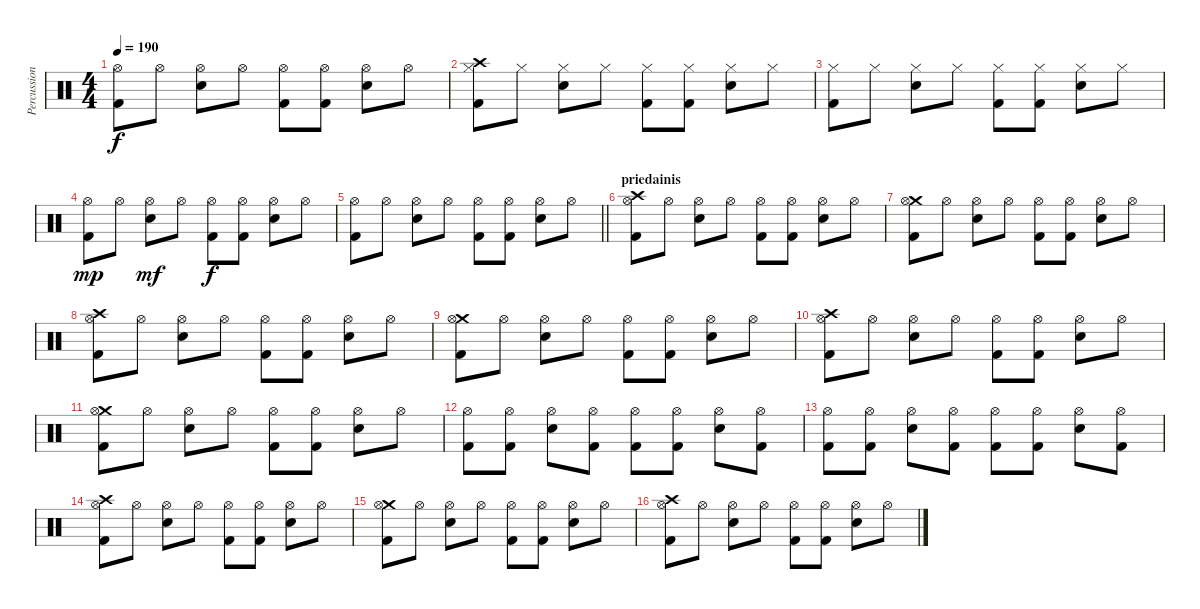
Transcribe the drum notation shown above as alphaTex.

\track ("Percussion" "Percussion") {instrument percussion}
\staff {score}
\articulation defaults
\ts (4 4)
\tempo 190
\clef neutral
\ks c
("Hi-Hat (open)" "Kick (hit) 2").8{dy f} "Hi-Hat (open)".8 ("Hi-Hat (open)" "Snare (hit) 2").8 "Hi-Hat (open)".8 ("Hi-Hat (open)" "Kick (hit) 2").8 ("Hi-Hat (open)" "Kick (hit) 2").8 ("Hi-Hat (open)" "Snare (hit) 2").8 "Hi-Hat (open)".8 |
("Crash high (hit)" "Hi-Hat (closed)" "Kick (hit) 2").8 "Hi-Hat (closed)".8 ("Hi-Hat (closed)" "Snare (hit) 2").8 "Hi-Hat (closed)".8 ("Hi-Hat (closed)" "Kick (hit) 2").8 ("Hi-Hat (closed)" "Kick (hit) 2").8 ("Hi-Hat (closed)" "Snare (hit) 2").8 "Hi-Hat (closed)".8 |
("Hi-Hat (closed)" "Kick (hit) 2").8 "Hi-Hat (closed)".8 ("Hi-Hat (closed)" "Snare (hit) 2").8 "Hi-Hat (closed)".8 ("Hi-Hat (closed)" "Kick (hit) 2").8 ("Hi-Hat (closed)" "Kick (hit) 2").8 ("Hi-Hat (closed)" "Snare (hit) 2").8 "Hi-Hat (closed)".8 |
("Hi-Hat (open)" "Kick (hit) 2").8{dy mp} "Hi-Hat (open)".8 ("Hi-Hat (open)" "Snare (hit) 2").8{dy mf} "Hi-Hat (open)".8 ("Hi-Hat (open)" "Kick (hit) 2").8{dy f} ("Hi-Hat (open)" "Kick (hit) 2").8 ("Hi-Hat (open)" "Snare (hit) 2").8 "Hi-Hat (open)".8 |
\barLineRight lightlight
("Hi-Hat (open)" "Kick (hit) 2").8 "Hi-Hat (open)".8 ("Hi-Hat (open)" "Snare (hit) 2").8 "Hi-Hat (open)".8 ("Hi-Hat (open)" "Kick (hit) 2").8 ("Hi-Hat (open)" "Kick (hit) 2").8 ("Hi-Hat (open)" "Snare (hit) 2").8 "Hi-Hat (open)".8 |
\section ("" "priedainis")
("Crash high (hit)" "Hi-Hat (open)" "Kick (hit) 2").8 "Hi-Hat (open)".8 ("Hi-Hat (open)" "Snare (hit) 2").8 "Hi-Hat (open)".8 ("Hi-Hat (open)" "Kick (hit) 2").8 ("Hi-Hat (open)" "Kick (hit) 2").8 ("Hi-Hat (open)" "Snare (hit) 2").8 "Hi-Hat (open)".8 |
("Crash medium (hit)" "Hi-Hat (open)" "Kick (hit) 2").8 "Hi-Hat (open)".8 ("Hi-Hat (open)" "Snare (hit) 2").8 "Hi-Hat (open)".8 ("Hi-Hat (open)" "Kick (hit) 2").8 ("Hi-Hat (open)" "Kick (hit) 2").8 ("Hi-Hat (open)" "Snare (hit) 2").8 "Hi-Hat (open)".8 |
("Crash high (hit)" "Hi-Hat (open)" "Kick (hit) 2").8 "Hi-Hat (open)".8 ("Hi-Hat (open)" "Snare (hit) 2").8 "Hi-Hat (open)".8 ("Hi-Hat (open)" "Kick (hit) 2").8 ("Hi-Hat (open)" "Kick (hit) 2").8 ("Hi-Hat (open)" "Snare (hit) 2").8 "Hi-Hat (open)".8 |
("Crash medium (hit)" "Hi-Hat (open)" "Kick (hit) 2").8 "Hi-Hat (open)".8 ("Hi-Hat (open)" "Snare (hit) 2").8 "Hi-Hat (open)".8 ("Hi-Hat (open)" "Kick (hit) 2").8 ("Hi-Hat (open)" "Kick (hit) 2").8 ("Hi-Hat (open)" "Snare (hit) 2").8 "Hi-Hat (open)".8 |
("Crash high (hit)" "Hi-Hat (open)" "Kick (hit) 2").8 "Hi-Hat (open)".8 ("Hi-Hat (open)" "Snare (hit) 2").8 "Hi-Hat (open)".8 ("Hi-Hat (open)" "Kick (hit) 2").8 ("Hi-Hat (open)" "Kick (hit) 2").8 ("Hi-Hat (open)" "Snare (hit) 2").8 "Hi-Hat (open)".8 |
("Crash medium (hit)" "Hi-Hat (open)" "Kick (hit) 2").8 "Hi-Hat (open)".8 ("Hi-Hat (open)" "Snare (hit) 2").8 "Hi-Hat (open)".8 ("Hi-Hat (open)" "Kick (hit) 2").8 ("Hi-Hat (open)" "Kick (hit) 2").8 ("Hi-Hat (open)" "Snare (hit) 2").8 "Hi-Hat (open)".8 |
("Hi-Hat (open)" "Kick (hit) 2").8 ("Hi-Hat (open)" "Kick (hit) 2").8 ("Hi-Hat (open)" "Snare (hit) 2").8 ("Hi-Hat (open)" "Kick (hit) 2").8 ("Hi-Hat (open)" "Kick (hit) 2").8 ("Hi-Hat (open)" "Kick (hit) 2").8 ("Hi-Hat (open)" "Snare (hit) 2").8 ("Hi-Hat (open)" "Kick (hit) 2").8 |
("Hi-Hat (open)" "Kick (hit) 2").8 ("Hi-Hat (open)" "Kick (hit) 2").8 ("Hi-Hat (open)" "Snare (hit) 2").8 ("Hi-Hat (open)" "Kick (hit) 2").8 ("Hi-Hat (open)" "Kick (hit) 2").8 ("Hi-Hat (open)" "Kick (hit) 2").8 ("Hi-Hat (open)" "Snare (hit) 2").8 ("Hi-Hat (open)" "Kick (hit) 2").8 |
("Crash high (hit)" "Hi-Hat (open)" "Kick (hit) 2").8 "Hi-Hat (open)".8 ("Hi-Hat (open)" "Snare (hit) 2").8 "Hi-Hat (open)".8 ("Hi-Hat (open)" "Kick (hit) 2").8 ("Hi-Hat (open)" "Kick (hit) 2").8 ("Hi-Hat (open)" "Snare (hit) 2").8 "Hi-Hat (open)".8 |
("Crash medium (hit)" "Hi-Hat (open)" "Kick (hit) 2").8 "Hi-Hat (open)".8 ("Hi-Hat (open)" "Snare (hit) 2").8 "Hi-Hat (open)".8 ("Hi-Hat (open)" "Kick (hit) 2").8 ("Hi-Hat (open)" "Kick (hit) 2").8 ("Hi-Hat (open)" "Snare (hit) 2").8 "Hi-Hat (open)".8 |
("Crash high (hit)" "Hi-Hat (open)" "Kick (hit) 2").8 "Hi-Hat (open)".8 ("Hi-Hat (open)" "Snare (hit) 2").8 "Hi-Hat (open)".8 ("Hi-Hat (open)" "Kick (hit) 2").8 ("Hi-Hat (open)" "Kick (hit) 2").8 ("Hi-Hat (open)" "Snare (hit) 2").8 "Hi-Hat (open)".8
